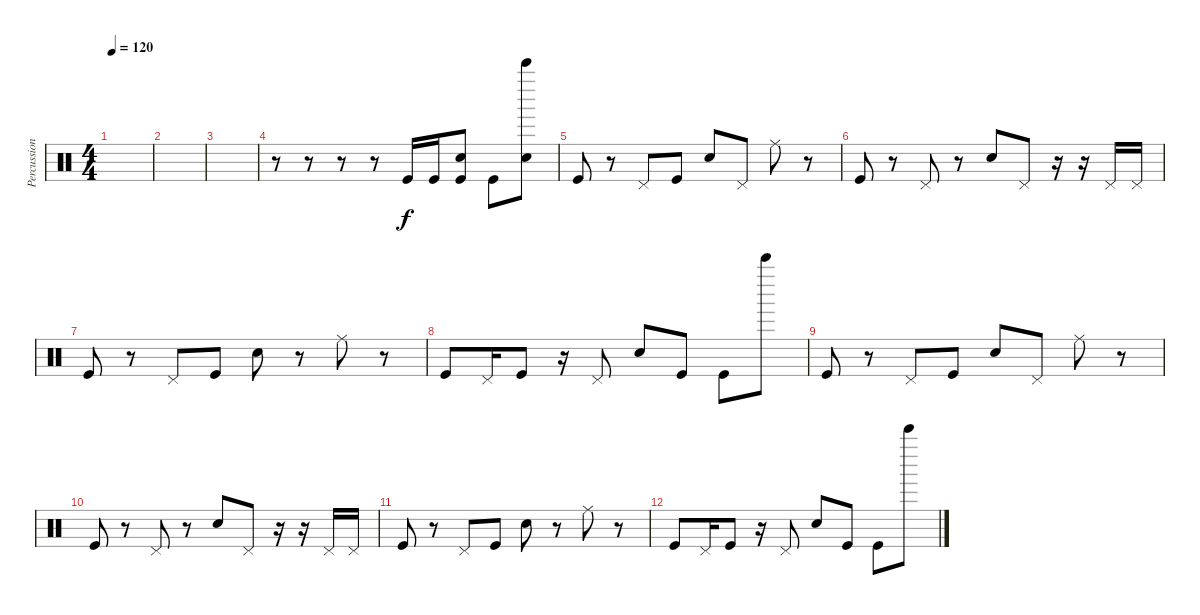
\track ("Percussions" "Percussion") {instrument percussion}
\staff {score}
\articulation defaults
\ts (4 4)
\tempo 120
\clef neutral
\ks c
|
|
|
r.8 r.8 r.8 r.8 "Kick (hit)".16 "Kick (hit)".16 ("Electric Snare (hit)" "Kick (hit)").8 "Kick (hit)".8 ("Electric Snare (hit)" "Bell Tree (hit)").8 |
"Kick (hit)".8 r.8 "Pedal Hi-Hat (hit)".8 "Kick (hit)".8 "Electric Snare (hit)".8 "Pedal Hi-Hat (hit)".8 "Ride (middle)".8 r.8 |
"Kick (hit)".8 r.8 "Pedal Hi-Hat (hit)".8 r.8 "Electric Snare (hit)".8 "Pedal Hi-Hat (hit)".8 r.16 r.16 "Pedal Hi-Hat (hit)".16 "Pedal Hi-Hat (hit)".16 |
"Kick (hit)".8 r.8 "Pedal Hi-Hat (hit)".8 "Kick (hit)".8 "Electric Snare (hit)".8 r.8 "Ride (middle)".8 r.8 |
"Kick (hit)".8 "Pedal Hi-Hat (hit)".16 "Kick (hit)".8 r.16 "Pedal Hi-Hat (hit)".8 "Electric Snare (hit)".8 "Kick (hit)".8 "Kick (hit)".8 "Bell Tree (hit)".8 |
"Kick (hit)".8 r.8 "Pedal Hi-Hat (hit)".8 "Kick (hit)".8 "Electric Snare (hit)".8 "Pedal Hi-Hat (hit)".8 "Ride (middle)".8 r.8 |
"Kick (hit)".8 r.8 "Pedal Hi-Hat (hit)".8 r.8 "Electric Snare (hit)".8 "Pedal Hi-Hat (hit)".8 r.16 r.16 "Pedal Hi-Hat (hit)".16 "Pedal Hi-Hat (hit)".16 |
"Kick (hit)".8 r.8 "Pedal Hi-Hat (hit)".8 "Kick (hit)".8 "Electric Snare (hit)".8 r.8 "Ride (middle)".8 r.8 |
"Kick (hit)".8 "Pedal Hi-Hat (hit)".16 "Kick (hit)".8 r.16 "Pedal Hi-Hat (hit)".8 "Electric Snare (hit)".8 "Kick (hit)".8 "Kick (hit)".8 "Bell Tree (hit)".8
